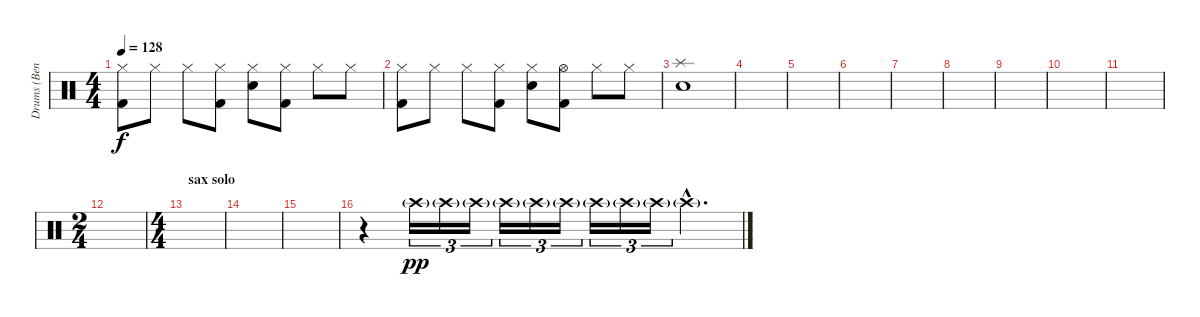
\track ("Drums (Bengerg)" "Drums (Ben") {instrument percussion}
\staff {score}
\articulation defaults
\ts (4 4)
\tempo 128
\clef neutral
\ks c
("Hi-Hat (closed)" "Kick (hit) 2").8{dy f} "Hi-Hat (closed)".8 "Hi-Hat (closed)".8 ("Hi-Hat (closed)" "Kick (hit) 2").8 ("Hi-Hat (closed)" "Electric Snare (hit)").8 ("Hi-Hat (closed)" "Kick (hit) 2").8 "Hi-Hat (closed)".8 "Hi-Hat (closed)".8 |
("Hi-Hat (closed)" "Kick (hit) 2").8 "Hi-Hat (closed)".8 "Hi-Hat (closed)".8 ("Hi-Hat (closed)" "Kick (hit) 2").8 ("Hi-Hat (closed)" "Electric Snare (hit)").8 ("Hi-Hat (open)" "Kick (hit) 2").8 "Hi-Hat (closed)".8 "Hi-Hat (closed)".8 |
("Splash (hit)" "Electric Snare (hit)").1 |
|
|
|
|
|
|
|
|
\ts (2 4)
|
\ts (4 4)
\section ("" "sax solo")
|
|
|
r.4{volume 9} "Crash high (hit)"{g}.16{tu (3 2) dy pp} "Crash high (hit)"{g}.16{tu (3 2)} "Crash high (hit)"{g}.16{tu (3 2)} "Crash high (hit)"{g}.16{tu (3 2)} "Crash high (hit)"{g}.16{tu (3 2)} "Crash high (hit)"{g}.16{tu (3 2)} "Crash high (hit)"{g}.16{tu (3 2)} "Crash high (hit)"{g}.16{tu (3 2)} "Crash high (hit)"{g}.16{tu (3 2)} "Crash high (hit)"{g hac}.4{d}
